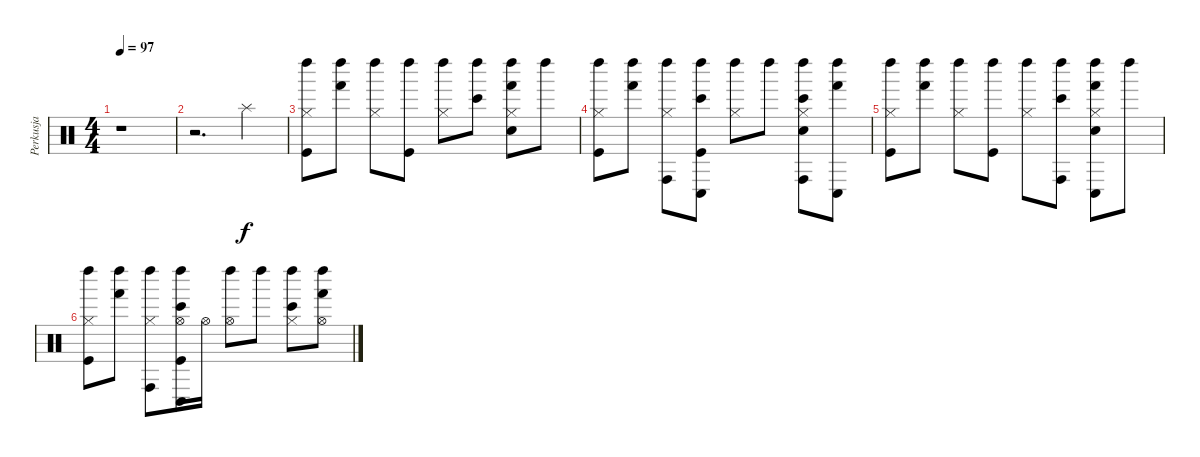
\track ("Perkusja" "Perkusja") {instrument percussion}
\staff {score}
\articulation defaults
\ts (4 4)
\tempo 97
\clef neutral
\ks c
r.1{dy ff} |
r.2{d} "Splash (hit)".4{dy f} |
("Left Maraca (hit)" "Hi-Hat (closed)" "Kick (hit)").8{volume 6} ("Left Maraca (hit)" "Hand (hit)").8 ("Left Maraca (hit)" "Hi-Hat (closed)").8 ("Left Maraca (hit)" "Kick (hit)").8 ("Left Maraca (hit)" "Hi-Hat (closed)").8 ("Left Maraca (hit)" "Bongo High (hit)").8 ("Left Maraca (hit)" "Hand (hit)" "Hi-Hat (closed)" "Snare (hit) 2").8 "Left Maraca (hit)".8 |
("Left Maraca (hit)" "Hi-Hat (closed)" "Kick (hit)").8 ("Left Maraca (hit)" "Hand (hit)").8 ("Left Maraca (hit)" "Conga high (hit)" "Hi-Hat (closed)").8 ("Left Maraca (hit)" "Conga low (hit)" "Bongo High (hit)" "Kick (hit)").8 ("Left Maraca (hit)" "Hi-Hat (closed)").8 "Left Maraca (hit)".8 ("Left Maraca (hit)" "Conga high (hit)" "Bongo High (hit)" "Hi-Hat (closed)" "Snare (hit) 2").8 ("Left Maraca (hit)" "Conga low (hit)" "Hand (hit)").8 |
("Left Maraca (hit)" "Hi-Hat (closed)" "Kick (hit)").8 ("Left Maraca (hit)" "Hand (hit)").8 ("Left Maraca (hit)" "Hi-Hat (closed)").8 ("Left Maraca (hit)" "Kick (hit)").8 ("Left Maraca (hit)" "Hi-Hat (closed)").8 ("Left Maraca (hit)" "Conga high (hit)" "Bongo High (hit)").8 ("Left Maraca (hit)" "Conga low (hit)" "Hand (hit)" "Hi-Hat (closed)" "Snare (hit) 2").8 "Left Maraca (hit)".8 |
("Left Maraca (hit)" "Hi-Hat (closed)" "Kick (hit)").8 ("Left Maraca (hit)" "Hand (hit)").8 ("Left Maraca (hit)" "Conga high (hit)" "Hi-Hat (closed)").8 ("Left Maraca (hit)" "Conga low (hit)" "Bongo High (hit)" "Hi-Hat (open)" "Kick (hit)").16 "Hi-Hat (open)".16 ("Left Maraca (hit)" "Hi-Hat (open)").8 "Left Maraca (hit)".8 ("Left Maraca (hit)" "Bongo High (hit)" "Hi-Hat (closed)").8 ("Left Maraca (hit)" "Hand (hit)" "Hi-Hat (open)").8
